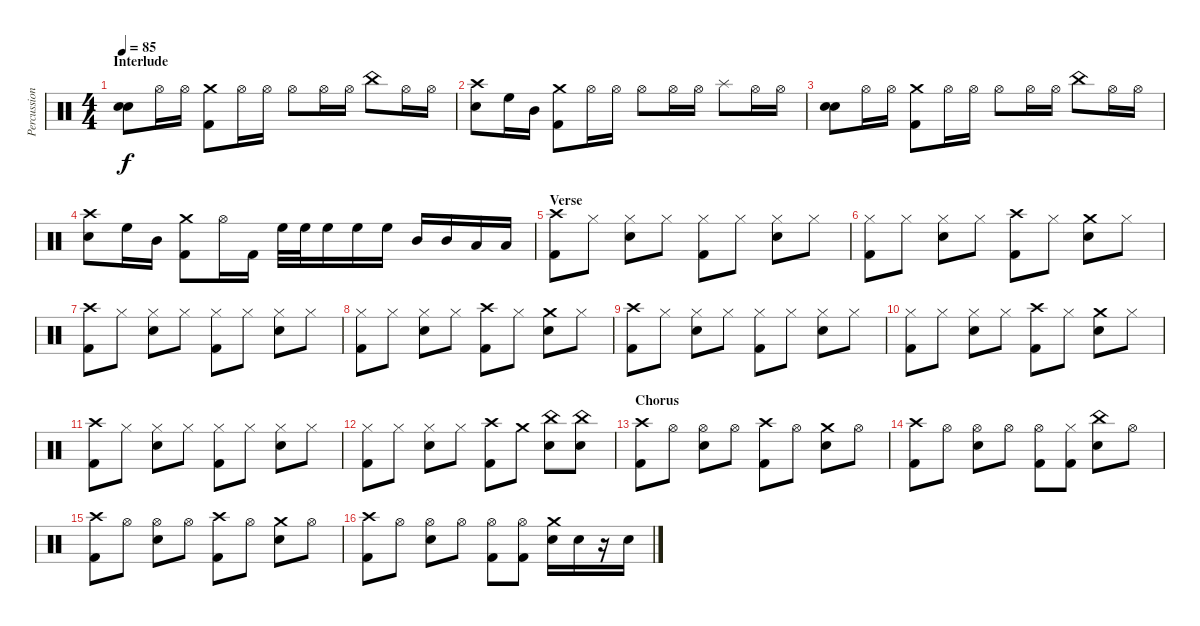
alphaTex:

\track ("Percussions" "Percussion") {instrument percussion}
\staff {score}
\articulation defaults
\ts (4 4)
\section ("" "Interlude")
\tempo 85
\clef neutral
\ks c
("Snare (hit) 2" "Snare (hit) 2").8{dy f} "Hi-Hat (open)".16 "Hi-Hat (open)".16 ("Crash medium (hit)" "Kick (hit) 2").8 "Hi-Hat (open)".16 "Hi-Hat (open)".16 "Hi-Hat (open)".8 "Hi-Hat (open)".16 "Hi-Hat (open)".16 "China (hit)".8 "Hi-Hat (open)".16 "Hi-Hat (open)".16 |
("Crash high (hit)" "Snare (hit) 2").8 "High Floor Tom (hit)".16 "Mid Tom (hit)".16 ("Crash medium (hit)" "Kick (hit) 2").8 "Hi-Hat (open)".16 "Hi-Hat (open)".16 "Hi-Hat (open)".8 "Hi-Hat (open)".16 "Hi-Hat (open)".16 "Splash (hit)".8 "Hi-Hat (open)".16 "Hi-Hat (open)".16 |
("Snare (hit) 2" "Snare (hit) 2").8 "Hi-Hat (open)".16 "Hi-Hat (open)".16 ("Crash medium (hit)" "Kick (hit) 2").8 "Hi-Hat (open)".16 "Hi-Hat (open)".16 "Hi-Hat (open)".8 "Hi-Hat (open)".16 "Hi-Hat (open)".16 "China (hit)".8 "Hi-Hat (open)".16 "Hi-Hat (open)".16 |
("Crash high (hit)" "Snare (hit) 2").8 "High Floor Tom (hit)".16 "Mid Tom (hit)".16 ("Crash medium (hit)" "Kick (hit) 2").8 "Hi-Hat (open)".16 "Kick (hit) 2".16 "High Floor Tom (hit)".32 "High Floor Tom (hit)".32 "High Floor Tom (hit)".16 "High Floor Tom (hit)".16 "High Floor Tom (hit)".16 "Mid Tom (hit)".16 "Mid Tom (hit)".16 "Low Tom (hit)".16 "Low Tom (hit)".16 |
\section ("" "Verse")
("Crash high (hit)" "Kick (hit) 2").8 "Hi-Hat (closed)".8 ("Hi-Hat (closed)" "Snare (hit) 2").8 "Hi-Hat (closed)".8 ("Hi-Hat (closed)" "Kick (hit) 2").8 "Hi-Hat (closed)".8 ("Hi-Hat (closed)" "Snare (hit) 2").8 "Hi-Hat (closed)".8 |
("Hi-Hat (closed)" "Kick (hit) 2").8 "Hi-Hat (closed)".8 ("Hi-Hat (closed)" "Snare (hit) 2").8 "Hi-Hat (closed)".8 ("Crash high (hit)" "Kick (hit) 2").8 "Hi-Hat (closed)".8 ("Crash medium (hit)" "Snare (hit) 2").8 "Hi-Hat (closed)".8 |
("Crash high (hit)" "Kick (hit) 2").8 "Hi-Hat (closed)".8 ("Hi-Hat (closed)" "Snare (hit) 2").8 "Hi-Hat (closed)".8 ("Hi-Hat (closed)" "Kick (hit) 2").8 "Hi-Hat (closed)".8 ("Hi-Hat (closed)" "Snare (hit) 2").8 "Hi-Hat (closed)".8 |
("Hi-Hat (closed)" "Kick (hit) 2").8 "Hi-Hat (closed)".8 ("Hi-Hat (closed)" "Snare (hit) 2").8 "Hi-Hat (closed)".8 ("Crash high (hit)" "Kick (hit) 2").8 "Hi-Hat (closed)".8 ("Crash medium (hit)" "Snare (hit) 2").8 "Hi-Hat (closed)".8 |
("Crash high (hit)" "Kick (hit) 2").8 "Hi-Hat (closed)".8 ("Hi-Hat (closed)" "Snare (hit) 2").8 "Hi-Hat (closed)".8 ("Hi-Hat (closed)" "Kick (hit) 2").8 "Hi-Hat (closed)".8 ("Hi-Hat (closed)" "Snare (hit) 2").8 "Hi-Hat (closed)".8 |
("Hi-Hat (closed)" "Kick (hit) 2").8 "Hi-Hat (closed)".8 ("Hi-Hat (closed)" "Snare (hit) 2").8 "Hi-Hat (closed)".8 ("Crash high (hit)" "Kick (hit) 2").8 "Hi-Hat (closed)".8 ("Crash medium (hit)" "Snare (hit) 2").8 "Hi-Hat (closed)".8 |
("Crash high (hit)" "Kick (hit) 2").8 "Hi-Hat (closed)".8 ("Hi-Hat (closed)" "Snare (hit) 2").8 "Hi-Hat (closed)".8 ("Hi-Hat (closed)" "Kick (hit) 2").8 "Hi-Hat (closed)".8 ("Hi-Hat (closed)" "Snare (hit) 2").8 "Hi-Hat (closed)".8 |
("Hi-Hat (closed)" "Kick (hit) 2").8 "Hi-Hat (closed)".8 ("Hi-Hat (closed)" "Snare (hit) 2").8 "Hi-Hat (closed)".8 ("Crash high (hit)" "Kick (hit) 2").8 "Crash medium (hit)".8 ("China (hit)" "Snare (hit) 2").8 ("China (hit)" "Snare (hit) 2").8 |
\section ("" "Chorus")
("Crash high (hit)" "Kick (hit) 2").8 "Hi-Hat (open)".8 ("Hi-Hat (open)" "Snare (hit) 2").8 "Hi-Hat (open)".8 ("Crash high (hit)" "Kick (hit) 2").8 "Hi-Hat (open)".8 ("Crash medium (hit)" "Snare (hit) 2").8 "Hi-Hat (open)".8 |
("Crash high (hit)" "Kick (hit) 2").8 "Hi-Hat (open)".8 ("Hi-Hat (open)" "Snare (hit) 2").8 "Hi-Hat (open)".8 ("Hi-Hat (open)" "Kick (hit) 2").8 ("Hi-Hat (closed)" "Kick (hit) 2").8 ("China (hit)" "Snare (hit) 2").8 "Hi-Hat (open)".8 |
("Crash high (hit)" "Kick (hit) 2").8 "Hi-Hat (open)".8 ("Hi-Hat (open)" "Snare (hit) 2").8 "Hi-Hat (open)".8 ("Crash high (hit)" "Kick (hit) 2").8 "Hi-Hat (open)".8 ("Crash medium (hit)" "Snare (hit) 2").8 "Hi-Hat (open)".8 |
("Crash high (hit)" "Kick (hit) 2").8 "Hi-Hat (open)".8 ("Hi-Hat (open)" "Snare (hit) 2").8 "Hi-Hat (open)".8 ("Hi-Hat (open)" "Kick (hit) 2").8 ("Hi-Hat (open)" "Kick (hit) 2").8 ("Crash medium (hit)" "Snare (hit) 2").16 "Snare (hit) 2".16 r.16 "Snare (hit) 2".16
